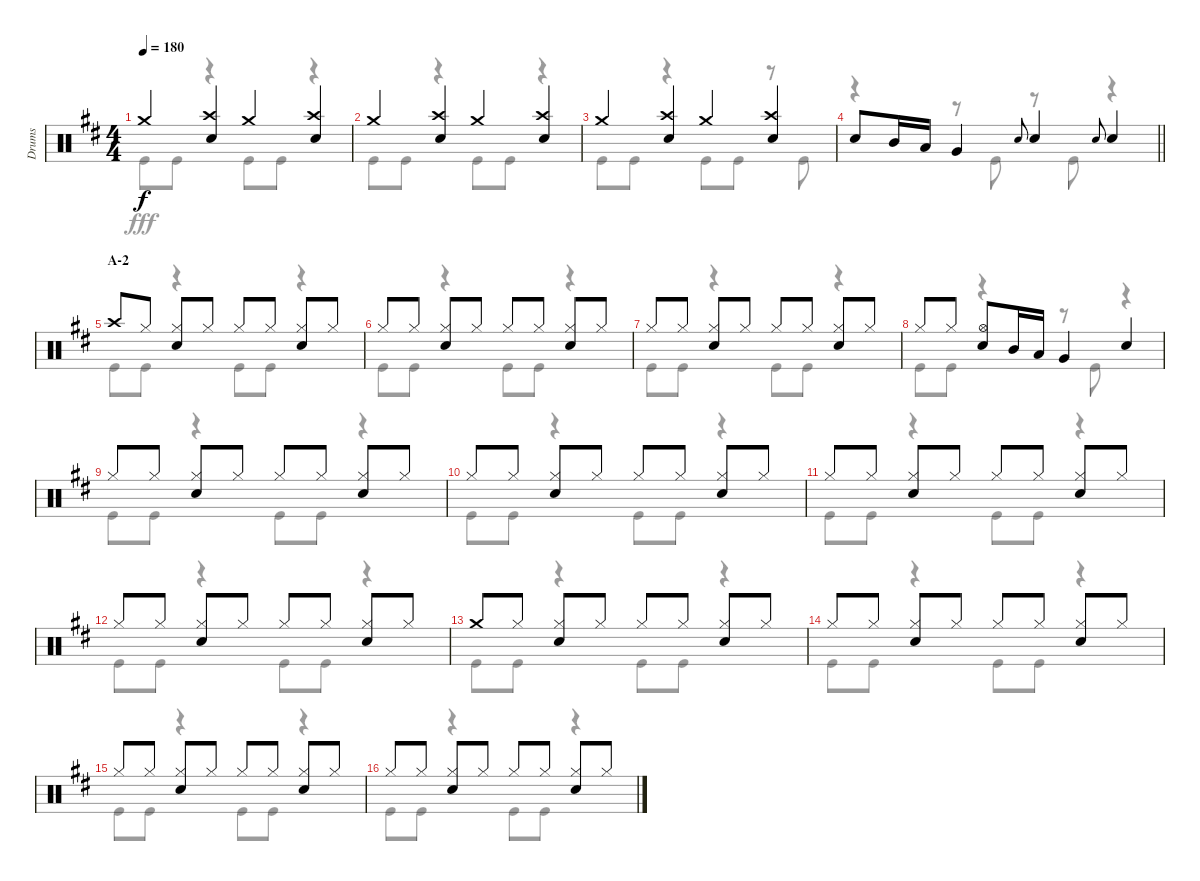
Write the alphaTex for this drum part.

\track ("Drums" "Drums") {instrument percussion}
\staff {score}
\articulation defaults
\voice
\ts (4 4)
\tempo 180
\clef neutral
\ks d "Crash medium (hit)".4{dy f}
("Crash high (hit)" "Snare (hit) 2").4 "Crash medium (hit)".4 ("Crash high (hit)" "Snare (hit) 2").4 |
"Crash medium (hit)".4 ("Crash high (hit)" "Snare (hit) 2").4 "Crash medium (hit)".4 ("Crash high (hit)" "Snare (hit) 2").4 |
"Crash medium (hit)".4 ("Crash high (hit)" "Snare (hit) 2").4 "Crash medium (hit)".4 ("Crash high (hit)" "Snare (hit) 2").4 |
\barLineRight lightlight "Snare (hit) 2".8 "Mid Tom (hit)".16 "Low Tom (hit)".16 "Very Low Tom (hit)".4 "Snare (hit) 2".8{gr onbeat} "Snare (hit) 2".4 "Snare (hit) 2".8{gr onbeat} "Snare (hit) 2".4
|
\section ("" "A-2")
"Crash high (hit)".8 "Hi-Hat (closed)".8 ("Hi-Hat (closed)" "Snare (hit) 2").8 "Hi-Hat (closed)".8 "Hi-Hat (closed)".8 "Hi-Hat (closed)".8 ("Hi-Hat (closed)" "Snare (hit) 2").8 "Hi-Hat (closed)".8 |
"Hi-Hat (closed)".8 "Hi-Hat (closed)".8 ("Hi-Hat (closed)" "Snare (hit) 2").8 "Hi-Hat (closed)".8 "Hi-Hat (closed)".8 "Hi-Hat (closed)".8 ("Hi-Hat (closed)" "Snare (hit) 2").8 "Hi-Hat (closed)".8 |
"Hi-Hat (closed)".8 "Hi-Hat (closed)".8 ("Hi-Hat (closed)" "Snare (hit) 2").8 "Hi-Hat (closed)".8 "Hi-Hat (closed)".8 "Hi-Hat (closed)".8 ("Hi-Hat (closed)" "Snare (hit) 2").8 "Hi-Hat (closed)".8 |
"Hi-Hat (closed)".8 "Hi-Hat (closed)".8 ("Hi-Hat (open)" "Snare (hit) 2").8 "Mid Tom (hit)".16 "Low Tom (hit)".16 "Very Low Tom (hit)".4 "Snare (hit) 2".4 |
"Hi-Hat (closed)".8 "Hi-Hat (closed)".8 ("Hi-Hat (closed)" "Snare (hit) 2").8 "Hi-Hat (closed)".8 "Hi-Hat (closed)".8 "Hi-Hat (closed)".8 ("Hi-Hat (closed)" "Snare (hit) 2").8 "Hi-Hat (closed)".8 |
"Hi-Hat (closed)".8 "Hi-Hat (closed)".8 ("Hi-Hat (closed)" "Snare (hit) 2").8 "Hi-Hat (closed)".8 "Hi-Hat (closed)".8 "Hi-Hat (closed)".8 ("Hi-Hat (closed)" "Snare (hit) 2").8 "Hi-Hat (closed)".8 |
"Hi-Hat (closed)".8 "Hi-Hat (closed)".8 ("Hi-Hat (closed)" "Snare (hit) 2").8 "Hi-Hat (closed)".8 "Hi-Hat (closed)".8 "Hi-Hat (closed)".8 ("Hi-Hat (closed)" "Snare (hit) 2").8 "Hi-Hat (closed)".8 |
"Hi-Hat (closed)".8 "Hi-Hat (closed)".8 ("Hi-Hat (closed)" "Snare (hit) 2").8 "Hi-Hat (closed)".8 "Hi-Hat (closed)".8 "Hi-Hat (closed)".8 ("Hi-Hat (closed)" "Snare (hit) 2").8 "Hi-Hat (closed)".8 |
"Crash medium (hit)".8 "Hi-Hat (closed)".8 ("Hi-Hat (closed)" "Snare (hit) 2").8 "Hi-Hat (closed)".8 "Hi-Hat (closed)".8 "Hi-Hat (closed)".8 ("Hi-Hat (closed)" "Snare (hit) 2").8 "Hi-Hat (closed)".8 |
"Hi-Hat (closed)".8 "Hi-Hat (closed)".8 ("Hi-Hat (closed)" "Snare (hit) 2").8 "Hi-Hat (closed)".8 "Hi-Hat (closed)".8 "Hi-Hat (closed)".8 ("Hi-Hat (closed)" "Snare (hit) 2").8 "Hi-Hat (closed)".8 |
"Hi-Hat (closed)".8 "Hi-Hat (closed)".8 ("Hi-Hat (closed)" "Snare (hit) 2").8 "Hi-Hat (closed)".8 "Hi-Hat (closed)".8 "Hi-Hat (closed)".8 ("Hi-Hat (closed)" "Snare (hit) 2").8 "Hi-Hat (closed)".8 |
"Hi-Hat (closed)".8 "Hi-Hat (closed)".8 ("Hi-Hat (closed)" "Snare (hit) 2").8 "Hi-Hat (closed)".8 "Hi-Hat (closed)".8 "Hi-Hat (closed)".8 ("Hi-Hat (closed)" "Snare (hit) 2").8 "Hi-Hat (closed)".8
\voice
\clef neutral
\ottava regular
\simile none
\ks d "Kick (hit)".8{dy fff} "Kick (hit)".8
r.4 "Kick (hit)".8 "Kick (hit)".8 r.4 |
"Kick (hit)".8 "Kick (hit)".8 r.4 "Kick (hit)".8 "Kick (hit)".8 r.4 |
"Kick (hit)".8 "Kick (hit)".8 r.4 "Kick (hit)".8 "Kick (hit)".8 r.8 "Kick (hit)".8 |
\barLineRight lightlight
r.4 r.8 "Kick (hit)".8 r.8 "Kick (hit)".8 r.4 |
"Kick (hit)".8 "Kick (hit)".8 r.4 "Kick (hit)".8 "Kick (hit)".8 r.4 |
"Kick (hit)".8 "Kick (hit)".8 r.4 "Kick (hit)".8 "Kick (hit)".8 r.4 |
"Kick (hit)".8 "Kick (hit)".8 r.4 "Kick (hit)".8 "Kick (hit)".8 r.4 |
"Kick (hit)".8 "Kick (hit)".8 r.4 r.8 "Kick (hit)".8 r.4 |
"Kick (hit)".8 "Kick (hit)".8 r.4 "Kick (hit)".8 "Kick (hit)".8 r.4 |
"Kick (hit)".8 "Kick (hit)".8 r.4 "Kick (hit)".8 "Kick (hit)".8 r.4 |
"Kick (hit)".8 "Kick (hit)".8 r.4 "Kick (hit)".8 "Kick (hit)".8 r.4 |
"Kick (hit)".8 "Kick (hit)".8 r.4 "Kick (hit)".8 "Kick (hit)".8 r.4 |
"Kick (hit)".8 "Kick (hit)".8 r.4 "Kick (hit)".8 "Kick (hit)".8 r.4 |
"Kick (hit)".8 "Kick (hit)".8 r.4 "Kick (hit)".8 "Kick (hit)".8 r.4 |
"Kick (hit)".8 "Kick (hit)".8 r.4 "Kick (hit)".8 "Kick (hit)".8 r.4 |
"Kick (hit)".8 "Kick (hit)".8 r.4 "Kick (hit)".8 "Kick (hit)".8 r.4
